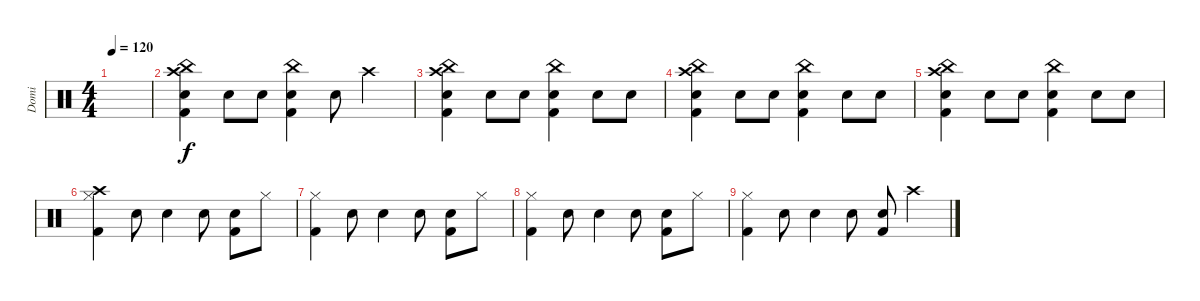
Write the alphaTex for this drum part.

\track ("Domi" "Domi") {instrument percussion}
\staff {score}
\articulation defaults
\ts (4 4)
\tempo 120
\clef neutral
\ks c
|
("Crash high (hit)" "Snare (hit) 2" "Kick (hit) 2" "China (hit)").4 "Snare (hit) 2".8 "Snare (hit) 2".8 ("Snare (hit) 2" "Kick (hit) 2" "China (hit)").4 "Snare (hit) 2".8 "Crash high (hit)".2 |
("Crash high (hit)" "Snare (hit) 2" "Kick (hit) 2" "China (hit)").4 "Snare (hit) 2".8 "Snare (hit) 2".8 ("Snare (hit) 2" "Kick (hit) 2" "China (hit)").4 "Snare (hit) 2".8 "Snare (hit) 2".8 |
("Crash high (hit)" "Snare (hit) 2" "Kick (hit) 2" "China (hit)").4 "Snare (hit) 2".8 "Snare (hit) 2".8 ("Snare (hit) 2" "Kick (hit) 2" "China (hit)").4 "Snare (hit) 2".8 "Snare (hit) 2".8 |
("Crash high (hit)" "Snare (hit) 2" "Kick (hit) 2" "China (hit)").4 "Snare (hit) 2".8 "Snare (hit) 2".8 ("Snare (hit) 2" "Kick (hit) 2" "China (hit)").4 "Snare (hit) 2".8 "Snare (hit) 2".8 |
("Crash high (hit)" "Hi-Hat (closed)" "Kick (hit) 2").4 "Snare (hit) 2".8 "Snare (hit) 2".4 "Snare (hit) 2".8 ("Snare (hit) 2" "Kick (hit) 2").8 "Hi-Hat (closed)".8 |
("Hi-Hat (closed)" "Kick (hit) 2").4 "Snare (hit) 2".8 "Snare (hit) 2".4 "Snare (hit) 2".8 ("Snare (hit) 2" "Kick (hit) 2").8 "Hi-Hat (closed)".8 |
("Hi-Hat (closed)" "Kick (hit) 2").4 "Snare (hit) 2".8 "Snare (hit) 2".4 "Snare (hit) 2".8 ("Snare (hit) 2" "Kick (hit) 2").8 "Hi-Hat (closed)".8 |
("Hi-Hat (closed)" "Kick (hit) 2").4 "Snare (hit) 2".8 "Snare (hit) 2".4 "Snare (hit) 2".8 ("Snare (hit) 2" "Kick (hit) 2").8 "Crash high (hit)".4
